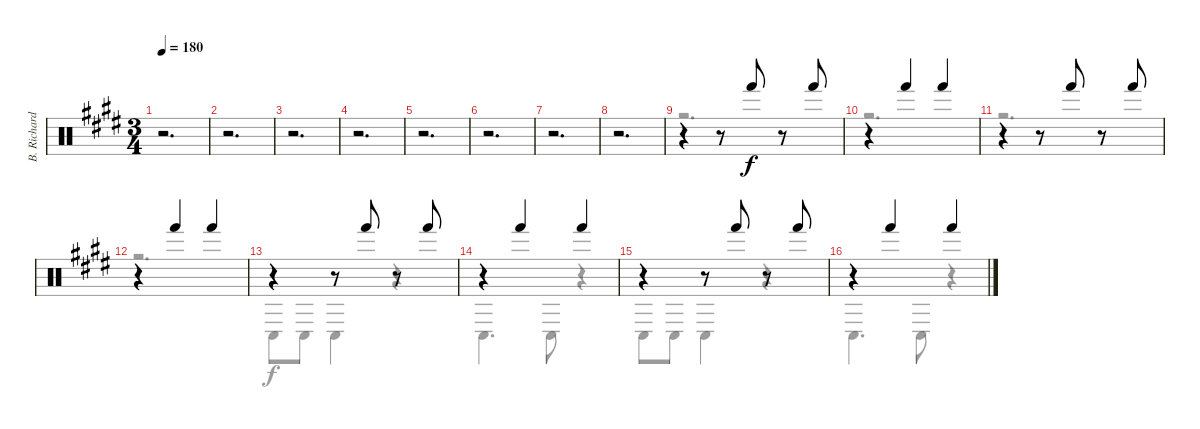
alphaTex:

\track ("B. Richardson Percussion" "B. Richard") {instrument percussion}
\staff {score}
\articulation defaults
\voice
\ts (3 4)
\tempo 180
\clef neutral
\ks c#minor
r.2{d dy f} |
r.2{d} |
r.2{d} |
r.2{d} |
r.2{d} |
r.2{d} |
r.2{d} |
r.2{d} |
r.4 r.8 "Hand (hit)".8 r.8 "Hand (hit)".8 |
r.4 "Hand (hit)".4 "Hand (hit)".4 |
r.4 r.8 "Hand (hit)".8 r.8 "Hand (hit)".8 |
r.4 "Hand (hit)".4 "Hand (hit)".4 |
r.4 r.8 "Hand (hit)".8 r.8 "Hand (hit)".8 |
r.4 "Hand (hit)".4 "Hand (hit)".4 |
r.4 r.8 "Hand (hit)".8 r.8 "Hand (hit)".8 |
r.4 "Hand (hit)".4 "Hand (hit)".4
\voice
\clef neutral
\ottava regular
\simile none
\ks c#minor
r.2{d dy f} |
r.2{d} |
r.2{d} |
r.2{d} |
r.2{d} |
r.2{d} |
r.2{d} |
r.2{d} |
r.2{d} |
r.2{d} |
r.2{d} |
r.2{d} |
"Conga low (hit)".8 "Conga low (hit)".8 "Conga low (hit)".4 r.4 |
"Conga low (hit)".4{d} "Conga low (hit)".8 r.4 |
"Conga low (hit)".8 "Conga low (hit)".8 "Conga low (hit)".4 r.4 |
"Conga low (hit)".4{d} "Conga low (hit)".8 r.4
